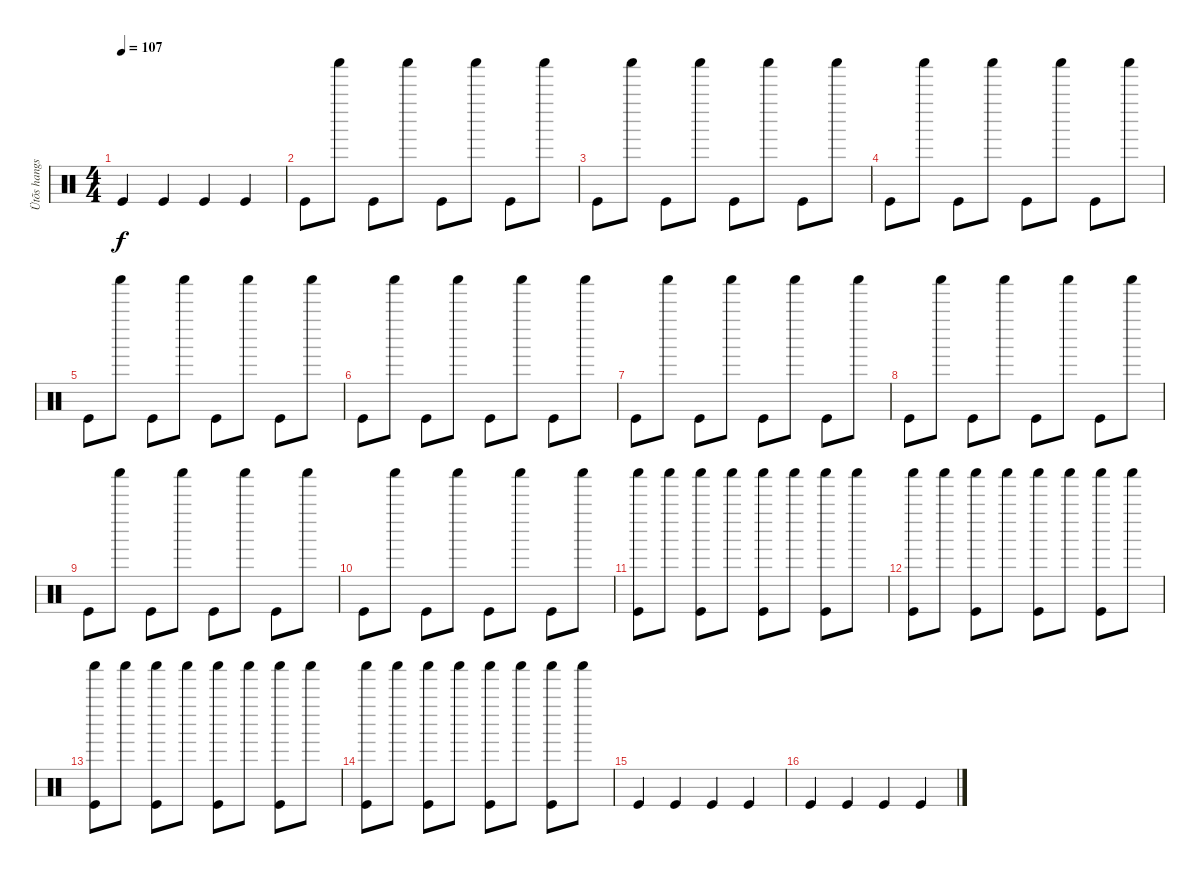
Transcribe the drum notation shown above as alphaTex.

\track ("Ütõs hangszer" "Ütõs hangs") {instrument percussion}
\staff {score}
\articulation defaults
\ts (4 4)
\tempo 107
\clef neutral
\ks c "Kick (hit)".4{dy f} "Kick (hit)".4 "Kick (hit)".4 "Kick (hit)".4
|
"Kick (hit)".8 "Shaker (hit)".8 "Kick (hit)".8 "Shaker (hit)".8 "Kick (hit)".8 "Shaker (hit)".8 "Kick (hit)".8 "Shaker (hit)".8 |
"Kick (hit)".8 "Shaker (hit)".8 "Kick (hit)".8 "Shaker (hit)".8 "Kick (hit)".8 "Shaker (hit)".8 "Kick (hit)".8 "Shaker (hit)".8 |
"Kick (hit)".8 "Shaker (hit)".8 "Kick (hit)".8 "Shaker (hit)".8 "Kick (hit)".8 "Shaker (hit)".8 "Kick (hit)".8 "Shaker (hit)".8 |
"Kick (hit)".8 "Shaker (hit)".8 "Kick (hit)".8 "Shaker (hit)".8 "Kick (hit)".8 "Shaker (hit)".8 "Kick (hit)".8 "Shaker (hit)".8 |
"Kick (hit)".8 "Shaker (hit)".8 "Kick (hit)".8 "Shaker (hit)".8 "Kick (hit)".8 "Shaker (hit)".8 "Kick (hit)".8 "Shaker (hit)".8 |
"Kick (hit)".8 "Shaker (hit)".8 "Kick (hit)".8 "Shaker (hit)".8 "Kick (hit)".8 "Shaker (hit)".8 "Kick (hit)".8 "Shaker (hit)".8 |
"Kick (hit)".8 "Shaker (hit)".8 "Kick (hit)".8 "Shaker (hit)".8 "Kick (hit)".8 "Shaker (hit)".8 "Kick (hit)".8 "Shaker (hit)".8 |
"Kick (hit)".8 "Shaker (hit)".8 "Kick (hit)".8 "Shaker (hit)".8 "Kick (hit)".8 "Shaker (hit)".8 "Kick (hit)".8 "Shaker (hit)".8 |
"Kick (hit)".8 "Shaker (hit)".8 "Kick (hit)".8 "Shaker (hit)".8 "Kick (hit)".8 "Shaker (hit)".8 "Kick (hit)".8 "Shaker (hit)".8 |
("Shaker (hit)" "Kick (hit)").8 "Shaker (hit)".8 ("Shaker (hit)" "Kick (hit)").8 "Shaker (hit)".8 ("Shaker (hit)" "Kick (hit)").8 "Shaker (hit)".8 ("Shaker (hit)" "Kick (hit)").8 "Shaker (hit)".8 |
("Shaker (hit)" "Kick (hit)").8 "Shaker (hit)".8 ("Shaker (hit)" "Kick (hit)").8 "Shaker (hit)".8 ("Shaker (hit)" "Kick (hit)").8 "Shaker (hit)".8 ("Shaker (hit)" "Kick (hit)").8 "Shaker (hit)".8 |
("Shaker (hit)" "Kick (hit)").8 "Shaker (hit)".8 ("Shaker (hit)" "Kick (hit)").8 "Shaker (hit)".8 ("Shaker (hit)" "Kick (hit)").8 "Shaker (hit)".8 ("Shaker (hit)" "Kick (hit)").8 "Shaker (hit)".8 |
("Shaker (hit)" "Kick (hit)").8 "Shaker (hit)".8 ("Shaker (hit)" "Kick (hit)").8 "Shaker (hit)".8 ("Shaker (hit)" "Kick (hit)").8 "Shaker (hit)".8 ("Shaker (hit)" "Kick (hit)").8 "Shaker (hit)".8 |
"Kick (hit)".4 "Kick (hit)".4 "Kick (hit)".4 "Kick (hit)".4 |
"Kick (hit)".4 "Kick (hit)".4 "Kick (hit)".4 "Kick (hit)".4
